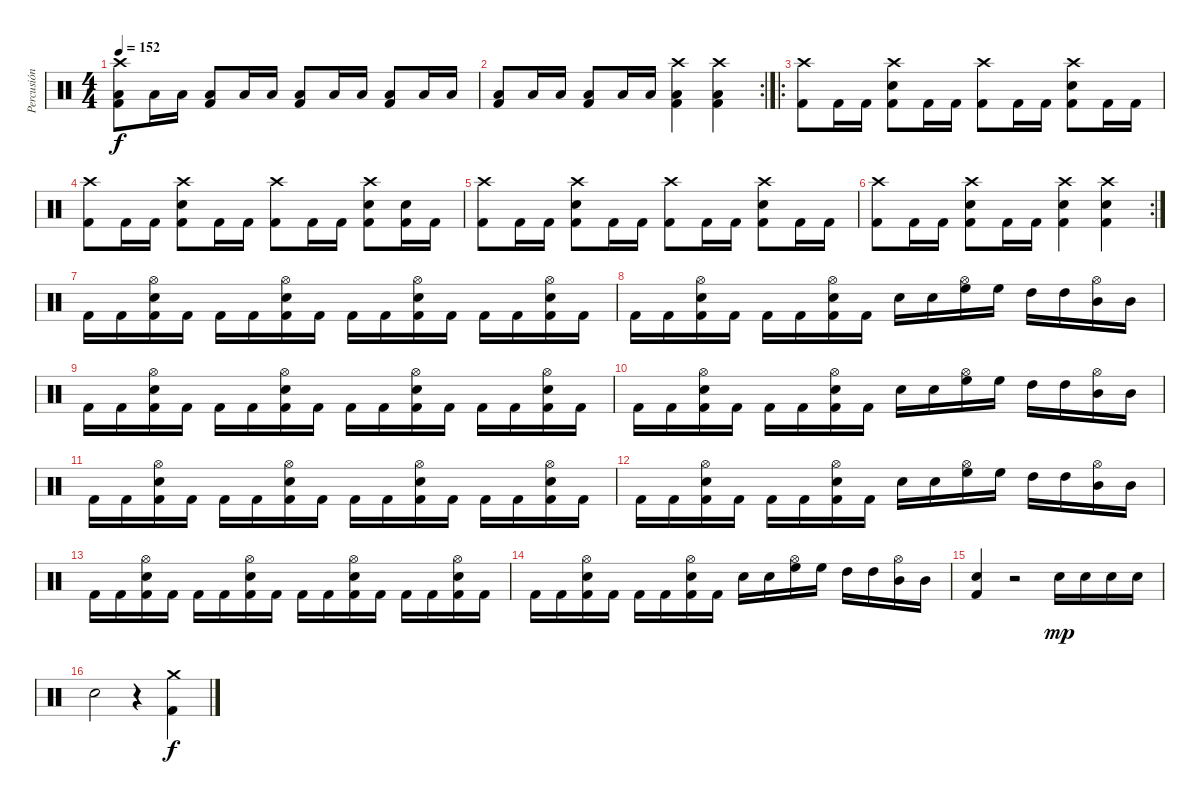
\track ("Percusión" "Percusión") {instrument percussion}
\staff {score}
\articulation defaults
\ts (4 4)
\tempo 152
\clef neutral
\ks c
("Crash high (hit)" "Kick (hit) 2" "Low Floor Tom (hit)").8{dy f} "Low Floor Tom (hit)".16 "Low Floor Tom (hit)".16 ("Kick (hit) 2" "Low Floor Tom (hit)").8 "Low Floor Tom (hit)".16 "Low Floor Tom (hit)".16 ("Kick (hit) 2" "Low Floor Tom (hit)").8 "Low Floor Tom (hit)".16 "Low Floor Tom (hit)".16 ("Kick (hit) 2" "Low Floor Tom (hit)").8 "Low Floor Tom (hit)".16 "Low Floor Tom (hit)".16 |
\rc 2
("Kick (hit) 2" "Low Floor Tom (hit)").8 "Low Floor Tom (hit)".16 "Low Floor Tom (hit)".16 ("Kick (hit) 2" "Low Floor Tom (hit)").8 "Low Floor Tom (hit)".16 "Low Floor Tom (hit)".16 ("Crash high (hit)" "Kick (hit) 2" "Low Floor Tom (hit)").4 ("Crash high (hit)" "Kick (hit) 2" "Low Floor Tom (hit)").4 |
\ro
("Crash high (hit)" "Kick (hit) 2").8 "Kick (hit) 2".16 "Kick (hit) 2".16 ("Crash high (hit)" "Snare (hit) 2" "Kick (hit) 2").8 "Kick (hit) 2".16 "Kick (hit) 2".16 ("Crash high (hit)" "Kick (hit) 2").8 "Kick (hit) 2".16 "Kick (hit) 2".16 ("Crash high (hit)" "Snare (hit) 2" "Kick (hit) 2").8 "Kick (hit) 2".16 "Kick (hit) 2".16 |
("Crash high (hit)" "Kick (hit) 2").8 "Kick (hit) 2".16 "Kick (hit) 2".16 ("Crash high (hit)" "Snare (hit) 2" "Kick (hit) 2").8 "Kick (hit) 2".16 "Kick (hit) 2".16 ("Crash high (hit)" "Kick (hit) 2").8 "Kick (hit) 2".16 "Kick (hit) 2".16 ("Crash high (hit)" "Snare (hit) 2" "Kick (hit) 2").8 ("Snare (hit) 2" "Kick (hit) 2").16 "Kick (hit) 2".16 |
("Crash high (hit)" "Kick (hit) 2").8 "Kick (hit) 2".16 "Kick (hit) 2".16 ("Crash high (hit)" "Snare (hit) 2" "Kick (hit) 2").8 "Kick (hit) 2".16 "Kick (hit) 2".16 ("Crash high (hit)" "Kick (hit) 2").8 "Kick (hit) 2".16 "Kick (hit) 2".16 ("Crash high (hit)" "Snare (hit) 2" "Kick (hit) 2").8 "Kick (hit) 2".16 "Kick (hit) 2".16 |
\rc 2
("Crash high (hit)" "Kick (hit) 2").8 "Kick (hit) 2".16 "Kick (hit) 2".16 ("Crash high (hit)" "Snare (hit) 2" "Kick (hit) 2").8 "Kick (hit) 2".16 "Kick (hit) 2".16 ("Crash high (hit)" "Snare (hit) 2" "Kick (hit) 2").4 ("Crash high (hit)" "Snare (hit) 2" "Kick (hit) 2").4 |
"Kick (hit) 2".16 "Kick (hit) 2".16 ("Hi-Hat (open)" "Snare (hit) 2" "Kick (hit) 2").16 "Kick (hit) 2".16 "Kick (hit) 2".16 "Kick (hit) 2".16 ("Hi-Hat (open)" "Snare (hit) 2" "Kick (hit) 2").16 "Kick (hit) 2".16 "Kick (hit) 2".16 "Kick (hit) 2".16 ("Hi-Hat (open)" "Snare (hit) 2" "Kick (hit) 2").16 "Kick (hit) 2".16 "Kick (hit) 2".16 "Kick (hit) 2".16 ("Hi-Hat (open)" "Snare (hit) 2" "Kick (hit) 2").16 "Kick (hit) 2".16 |
"Kick (hit) 2".16 "Kick (hit) 2".16 ("Hi-Hat (open)" "Snare (hit) 2" "Kick (hit) 2").16 "Kick (hit) 2".16 "Kick (hit) 2".16 "Kick (hit) 2".16 ("Hi-Hat (open)" "Snare (hit) 2" "Kick (hit) 2").16 "Kick (hit) 2".16 "Snare (hit) 2".16 "Snare (hit) 2".16 ("Hi-Hat (open)" "High Floor Tom (hit)").16 "High Floor Tom (hit)".16 "High Tom (hit)".16 "High Tom (hit)".16 ("Hi-Hat (open)" "Mid Tom (hit)").16 "Mid Tom (hit)".16 |
"Kick (hit) 2".16 "Kick (hit) 2".16 ("Hi-Hat (open)" "Snare (hit) 2" "Kick (hit) 2").16 "Kick (hit) 2".16 "Kick (hit) 2".16 "Kick (hit) 2".16 ("Hi-Hat (open)" "Snare (hit) 2" "Kick (hit) 2").16 "Kick (hit) 2".16 "Kick (hit) 2".16 "Kick (hit) 2".16 ("Hi-Hat (open)" "Snare (hit) 2" "Kick (hit) 2").16 "Kick (hit) 2".16 "Kick (hit) 2".16 "Kick (hit) 2".16 ("Hi-Hat (open)" "Snare (hit) 2" "Kick (hit) 2").16 "Kick (hit) 2".16 |
"Kick (hit) 2".16 "Kick (hit) 2".16 ("Hi-Hat (open)" "Snare (hit) 2" "Kick (hit) 2").16 "Kick (hit) 2".16 "Kick (hit) 2".16 "Kick (hit) 2".16 ("Hi-Hat (open)" "Snare (hit) 2" "Kick (hit) 2").16 "Kick (hit) 2".16 "Snare (hit) 2".16 "Snare (hit) 2".16 ("Hi-Hat (open)" "High Floor Tom (hit)").16 "High Floor Tom (hit)".16 "High Tom (hit)".16 "High Tom (hit)".16 ("Hi-Hat (open)" "Mid Tom (hit)").16 "Mid Tom (hit)".16 |
"Kick (hit) 2".16 "Kick (hit) 2".16 ("Hi-Hat (open)" "Snare (hit) 2" "Kick (hit) 2").16 "Kick (hit) 2".16 "Kick (hit) 2".16 "Kick (hit) 2".16 ("Hi-Hat (open)" "Snare (hit) 2" "Kick (hit) 2").16 "Kick (hit) 2".16 "Kick (hit) 2".16 "Kick (hit) 2".16 ("Hi-Hat (open)" "Snare (hit) 2" "Kick (hit) 2").16 "Kick (hit) 2".16 "Kick (hit) 2".16 "Kick (hit) 2".16 ("Hi-Hat (open)" "Snare (hit) 2" "Kick (hit) 2").16 "Kick (hit) 2".16 |
"Kick (hit) 2".16 "Kick (hit) 2".16 ("Hi-Hat (open)" "Snare (hit) 2" "Kick (hit) 2").16 "Kick (hit) 2".16 "Kick (hit) 2".16 "Kick (hit) 2".16 ("Hi-Hat (open)" "Snare (hit) 2" "Kick (hit) 2").16 "Kick (hit) 2".16 "Snare (hit) 2".16 "Snare (hit) 2".16 ("Hi-Hat (open)" "High Floor Tom (hit)").16 "High Floor Tom (hit)".16 "High Tom (hit)".16 "High Tom (hit)".16 ("Hi-Hat (open)" "Mid Tom (hit)").16 "Mid Tom (hit)".16 |
"Kick (hit) 2".16 "Kick (hit) 2".16 ("Hi-Hat (open)" "Snare (hit) 2" "Kick (hit) 2").16 "Kick (hit) 2".16 "Kick (hit) 2".16 "Kick (hit) 2".16 ("Hi-Hat (open)" "Snare (hit) 2" "Kick (hit) 2").16 "Kick (hit) 2".16 "Kick (hit) 2".16 "Kick (hit) 2".16 ("Hi-Hat (open)" "Snare (hit) 2" "Kick (hit) 2").16 "Kick (hit) 2".16 "Kick (hit) 2".16 "Kick (hit) 2".16 ("Hi-Hat (open)" "Snare (hit) 2" "Kick (hit) 2").16 "Kick (hit) 2".16 |
"Kick (hit) 2".16 "Kick (hit) 2".16 ("Hi-Hat (open)" "Snare (hit) 2" "Kick (hit) 2").16 "Kick (hit) 2".16 "Kick (hit) 2".16 "Kick (hit) 2".16 ("Hi-Hat (open)" "Snare (hit) 2" "Kick (hit) 2").16 "Kick (hit) 2".16 "Snare (hit) 2".16 "Snare (hit) 2".16 ("Hi-Hat (open)" "High Floor Tom (hit)").16 "High Floor Tom (hit)".16 "High Tom (hit)".16 "High Tom (hit)".16 ("Hi-Hat (open)" "Mid Tom (hit)").16 "Mid Tom (hit)".16 |
("Snare (hit) 2" "Kick (hit) 2").4 r.2 "Snare (hit) 2".16{dy mp} "Snare (hit) 2".16 "Snare (hit) 2".16 "Snare (hit) 2".16 |
"Snare (hit) 2".2 r.4 ("Crash medium (hit)" "Kick (hit) 2").4{dy f}
